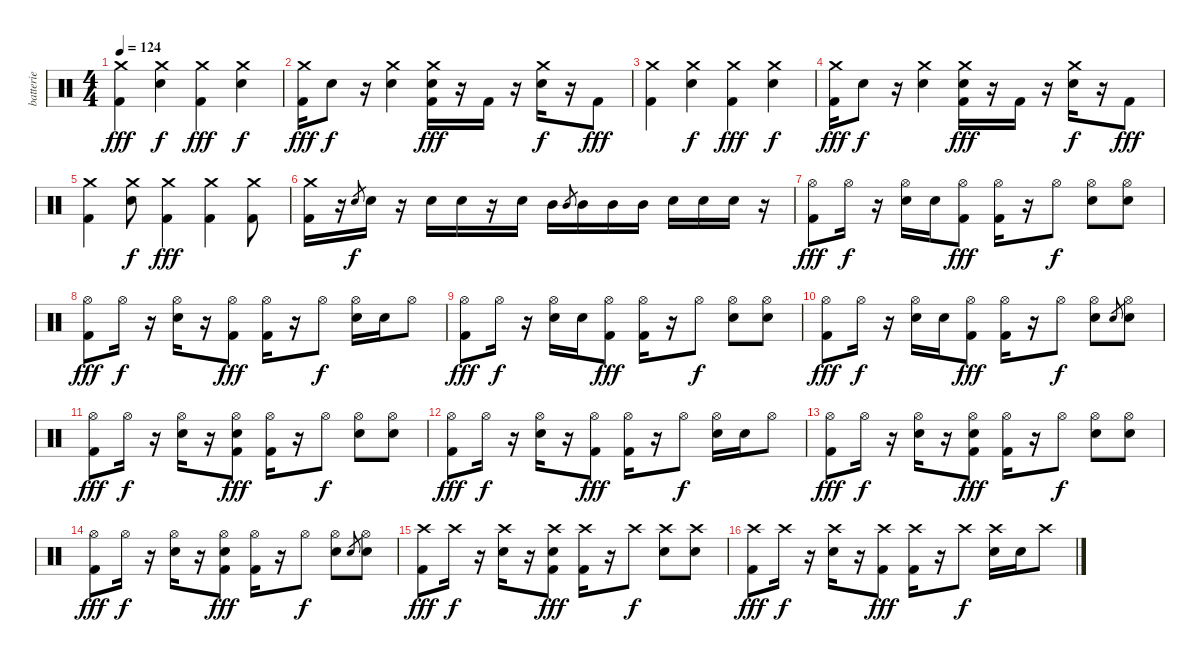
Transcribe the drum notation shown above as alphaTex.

\track ("batterie" "batterie") {instrument percussion}
\staff {score}
\articulation defaults
\ts (4 4)
\tempo 124
\clef neutral
\ks c
("Crash medium (hit)" "Kick (hit) 2").4{dy fff} ("Crash medium (hit)" "Electric Snare (hit)").4{dy f} ("Crash medium (hit)" "Kick (hit) 2").4{dy fff} ("Crash medium (hit)" "Electric Snare (hit)").4{dy f} |
("Crash medium (hit)" "Kick (hit) 2").16{dy fff} "Electric Snare (hit)".8{dy f} r.16 ("Crash medium (hit)" "Electric Snare (hit)").4 ("Crash medium (hit)" "Electric Snare (hit)" "Kick (hit) 2").16{dy fff} r.16 "Kick (hit) 2".16 r.16 ("Crash medium (hit)" "Electric Snare (hit)").16{dy f} r.16 "Kick (hit) 2".8{dy fff} |
("Crash medium (hit)" "Kick (hit) 2").4 ("Crash medium (hit)" "Electric Snare (hit)").4{dy f} ("Crash medium (hit)" "Kick (hit) 2").4{dy fff} ("Crash medium (hit)" "Electric Snare (hit)").4{dy f} |
("Crash medium (hit)" "Kick (hit) 2").16{dy fff} "Electric Snare (hit)".8{dy f} r.16 ("Crash medium (hit)" "Electric Snare (hit)").4 ("Crash medium (hit)" "Electric Snare (hit)" "Kick (hit) 2").16{dy fff} r.16 "Kick (hit) 2".16 r.16 ("Crash medium (hit)" "Electric Snare (hit)").16{dy f} r.16 "Kick (hit) 2".8{dy fff} |
("Crash medium (hit)" "Kick (hit) 2").4 ("Crash medium (hit)" "Electric Snare (hit)").8{dy f} ("Crash medium (hit)" "Kick (hit) 2").4{dy fff} ("Crash medium (hit)" "Kick (hit) 2").4 ("Crash medium (hit)" "Kick (hit) 2").8 |
("Crash medium (hit)" "Kick (hit) 2").16 r.16 "Electric Snare (hit)".8{gr dy f} "Electric Snare (hit)".16 r.16 "Electric Snare (hit)".16 "Electric Snare (hit)".16 r.16 "Electric Snare (hit)".16 "Mid Tom (hit)".16 "Mid Tom (hit)".8{gr} "Mid Tom (hit)".16 "Mid Tom (hit)".16 "Mid Tom (hit)".16 "Electric Snare (hit)".16 "Electric Snare (hit)".16 "Electric Snare (hit)".16 r.16 |
("Hi-Hat (open)" "Kick (hit) 2").8{dy fff} "Hi-Hat (open)".16{dy f} r.16 ("Hi-Hat (open)" "Electric Snare (hit)").16 "Electric Snare (hit)".16 ("Hi-Hat (open)" "Kick (hit) 2").8{dy fff} ("Hi-Hat (open)" "Kick (hit) 2").16 r.16 "Hi-Hat (open)".8{dy f} ("Hi-Hat (open)" "Electric Snare (hit)").8 ("Hi-Hat (open)" "Electric Snare (hit)").8 |
("Hi-Hat (open)" "Kick (hit) 2").8{dy fff} "Hi-Hat (open)".16{dy f} r.16 ("Hi-Hat (open)" "Electric Snare (hit)").16 r.16 ("Hi-Hat (open)" "Kick (hit) 2").8{dy fff} ("Hi-Hat (open)" "Kick (hit) 2").16 r.16 "Hi-Hat (open)".8{dy f} ("Hi-Hat (open)" "Electric Snare (hit)").16 "Electric Snare (hit)".16 "Hi-Hat (open)".8 |
("Hi-Hat (open)" "Kick (hit) 2").8{dy fff} "Hi-Hat (open)".16{dy f} r.16 ("Hi-Hat (open)" "Electric Snare (hit)").16 "Electric Snare (hit)".16 ("Hi-Hat (open)" "Kick (hit) 2").8{dy fff} ("Hi-Hat (open)" "Kick (hit) 2").16 r.16 "Hi-Hat (open)".8{dy f} ("Hi-Hat (open)" "Electric Snare (hit)").8 ("Hi-Hat (open)" "Electric Snare (hit)").8 |
("Hi-Hat (open)" "Kick (hit) 2").8{dy fff} "Hi-Hat (open)".16{dy f} r.16 ("Hi-Hat (open)" "Electric Snare (hit)").16 "Electric Snare (hit)".16 ("Hi-Hat (open)" "Kick (hit) 2").8{dy fff} ("Hi-Hat (open)" "Kick (hit) 2").16 r.16 "Hi-Hat (open)".8{dy f} ("Hi-Hat (open)" "Electric Snare (hit)").8 "Electric Snare (hit)".8{gr} ("Hi-Hat (open)" "Electric Snare (hit)").8 |
("Hi-Hat (open)" "Kick (hit) 2").8{dy fff} "Hi-Hat (open)".16{dy f} r.16 ("Hi-Hat (open)" "Electric Snare (hit)").16 r.16 ("Hi-Hat (open)" "Electric Snare (hit)" "Kick (hit) 2").8{dy fff} ("Hi-Hat (open)" "Kick (hit) 2").16 r.16 "Hi-Hat (open)".8{dy f} ("Hi-Hat (open)" "Electric Snare (hit)").8 ("Hi-Hat (open)" "Electric Snare (hit)").8 |
("Hi-Hat (open)" "Kick (hit) 2").8{dy fff} "Hi-Hat (open)".16{dy f} r.16 ("Hi-Hat (open)" "Electric Snare (hit)").16 r.16 ("Hi-Hat (open)" "Kick (hit) 2").8{dy fff} ("Hi-Hat (open)" "Kick (hit) 2").16 r.16 "Hi-Hat (open)".8{dy f} ("Hi-Hat (open)" "Electric Snare (hit)").16 "Electric Snare (hit)".16 "Hi-Hat (open)".8 |
("Hi-Hat (open)" "Kick (hit) 2").8{dy fff} "Hi-Hat (open)".16{dy f} r.16 ("Hi-Hat (open)" "Electric Snare (hit)").16 r.16 ("Hi-Hat (open)" "Electric Snare (hit)" "Kick (hit) 2").8{dy fff} ("Hi-Hat (open)" "Kick (hit) 2").16 r.16 "Hi-Hat (open)".8{dy f} ("Hi-Hat (open)" "Electric Snare (hit)").8 ("Hi-Hat (open)" "Electric Snare (hit)").8 |
("Hi-Hat (open)" "Kick (hit) 2").8{dy fff} "Hi-Hat (open)".16{dy f} r.16 ("Hi-Hat (open)" "Electric Snare (hit)").16 r.16 ("Hi-Hat (open)" "Electric Snare (hit)" "Kick (hit) 2").8{dy fff} ("Hi-Hat (open)" "Kick (hit) 2").16 r.16 "Hi-Hat (open)".8{dy f} ("Hi-Hat (open)" "Electric Snare (hit)").8 "Electric Snare (hit)".8{gr} ("Hi-Hat (open)" "Electric Snare (hit)").8 |
("Crash high (hit)" "Kick (hit) 2").8{dy fff} "Crash high (hit)".16{dy f} r.16 ("Crash high (hit)" "Electric Snare (hit)").16 r.16 ("Crash high (hit)" "Electric Snare (hit)" "Kick (hit) 2").8{dy fff} ("Crash high (hit)" "Kick (hit) 2").16 r.16 "Crash high (hit)".8{dy f} ("Crash high (hit)" "Electric Snare (hit)").8 ("Crash high (hit)" "Electric Snare (hit)").8 |
("Crash high (hit)" "Kick (hit) 2").8{dy fff} "Crash high (hit)".16{dy f} r.16 ("Crash high (hit)" "Electric Snare (hit)").16 r.16 ("Crash high (hit)" "Kick (hit) 2").8{dy fff} ("Crash high (hit)" "Kick (hit) 2").16 r.16 "Crash high (hit)".8{dy f} ("Crash high (hit)" "Electric Snare (hit)").16 "Electric Snare (hit)".16 "Crash high (hit)".8
